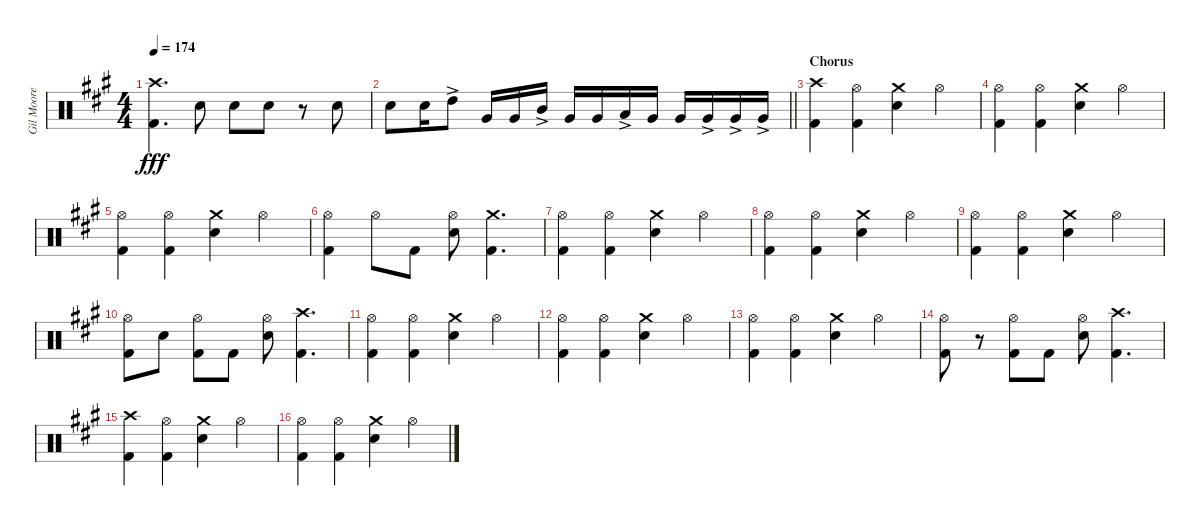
\track ("Gil Moore" "Gil Moore") {instrument percussion}
\staff {score}
\articulation defaults
\ts (4 4)
\tempo 174
\clef neutral
\ks a
("Crash high (hit)" "Kick (hit) 2").4{d dy fff} "Snare (hit) 2".8 "Snare (hit) 2".8 "Snare (hit) 2".8 r.8 "Snare (hit) 2".8 |
\barLineRight lightlight "Snare (hit) 2".8 "Snare (hit) 2".16 "High Tom (hit)"{ac}.8 "Very Low Tom (hit)".16 "Very Low Tom (hit)".16 "Mid Tom (hit)"{ac}.16 "Very Low Tom (hit)".16 "Very Low Tom (hit)".16 "Low Tom (hit)"{ac}.16 "Very Low Tom (hit)".16 "Very Low Tom (hit)".16 "Very Low Tom (hit)"{ac}.16 "Very Low Tom (hit)"{ac}.16 "Very Low Tom (hit)"{ac}.16
|
\section ("" "Chorus")
("Crash high (hit)" "Kick (hit) 2").4 ("Hi-Hat (open)" "Kick (hit) 2").4 ("Crash medium (hit)" "Snare (hit) 2").4 "Hi-Hat (open)".4 |
("Hi-Hat (open)" "Kick (hit) 2").4 ("Hi-Hat (open)" "Kick (hit) 2").4 ("Crash medium (hit)" "Snare (hit) 2").4 "Hi-Hat (open)".4 |
("Hi-Hat (open)" "Kick (hit) 2").4 ("Hi-Hat (open)" "Kick (hit) 2").4 ("Crash medium (hit)" "Snare (hit) 2").4 "Hi-Hat (open)".4 |
("Hi-Hat (open)" "Kick (hit) 2").4 "Hi-Hat (open)".8 "Kick (hit) 2".8 ("Hi-Hat (open)" "Snare (hit) 2").8 ("Crash medium (hit)" "Kick (hit) 2").4{d} |
("Hi-Hat (open)" "Kick (hit) 2").4 ("Hi-Hat (open)" "Kick (hit) 2").4 ("Crash medium (hit)" "Snare (hit) 2").4 "Hi-Hat (open)".4 |
("Hi-Hat (open)" "Kick (hit) 2").4 ("Hi-Hat (open)" "Kick (hit) 2").4 ("Crash medium (hit)" "Snare (hit) 2").4 "Hi-Hat (open)".4 |
("Hi-Hat (open)" "Kick (hit) 2").4 ("Hi-Hat (open)" "Kick (hit) 2").4 ("Crash medium (hit)" "Snare (hit) 2").4 "Hi-Hat (open)".4 |
("Hi-Hat (open)" "Kick (hit) 2").8 "Snare (hit) 2".8 ("Hi-Hat (open)" "Kick (hit) 2").8 "Kick (hit) 2".8 ("Hi-Hat (open)" "Snare (hit) 2").8 ("Crash high (hit)" "Kick (hit) 2").4{d} |
("Hi-Hat (open)" "Kick (hit) 2").4 ("Hi-Hat (open)" "Kick (hit) 2").4 ("Crash medium (hit)" "Snare (hit) 2").4 "Hi-Hat (open)".4 |
("Hi-Hat (open)" "Kick (hit) 2").4 ("Hi-Hat (open)" "Kick (hit) 2").4 ("Crash medium (hit)" "Snare (hit) 2").4 "Hi-Hat (open)".4 |
("Hi-Hat (open)" "Kick (hit) 2").4 ("Hi-Hat (open)" "Kick (hit) 2").4 ("Crash medium (hit)" "Snare (hit) 2").4 "Hi-Hat (open)".4 |
("Hi-Hat (open)" "Kick (hit) 2").8 r.8 ("Hi-Hat (open)" "Kick (hit) 2").8 "Kick (hit) 2".8 ("Hi-Hat (open)" "Snare (hit) 2").8 ("Crash high (hit)" "Kick (hit) 2").4{d} |
("Crash high (hit)" "Kick (hit) 2").4 ("Hi-Hat (open)" "Kick (hit) 2").4 ("Crash medium (hit)" "Snare (hit) 2").4 "Hi-Hat (open)".4 |
("Hi-Hat (open)" "Kick (hit) 2").4 ("Hi-Hat (open)" "Kick (hit) 2").4 ("Crash medium (hit)" "Snare (hit) 2").4 "Hi-Hat (open)".4
